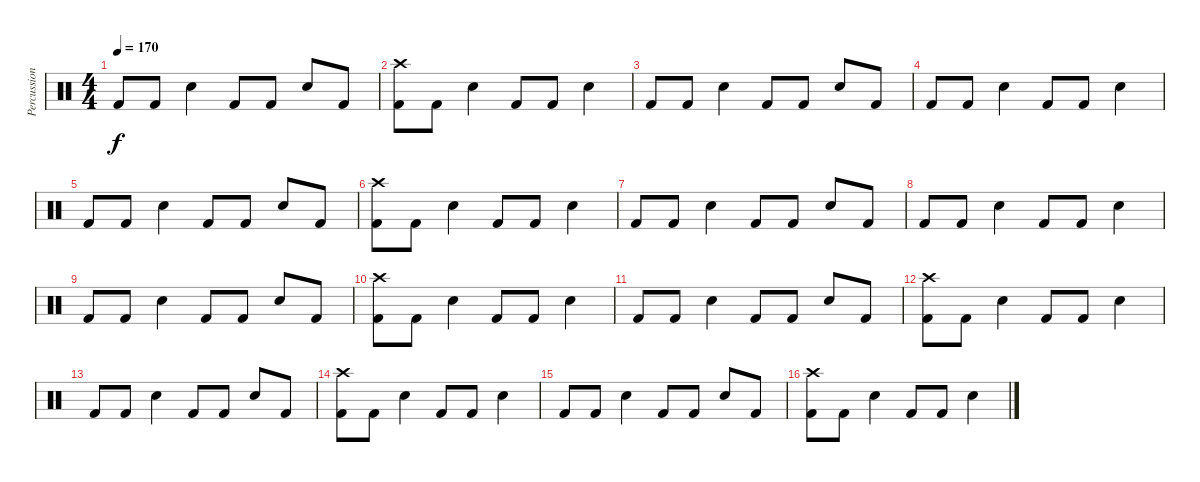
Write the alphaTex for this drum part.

\track ("Percussion" "Percussion") {instrument percussion}
\staff {score}
\articulation defaults
\ts (4 4)
\tempo 170
\clef neutral
\ks c "Kick (hit) 2".8{dy f} "Kick (hit) 2".8 "Electric Snare (hit)".4 "Kick (hit) 2".8 "Kick (hit) 2".8 "Electric Snare (hit)".8 "Kick (hit) 2".8
|
("Crash high (hit)" "Kick (hit) 2").8 "Kick (hit) 2".8 "Electric Snare (hit)".4 "Kick (hit) 2".8 "Kick (hit) 2".8 "Electric Snare (hit)".4 |
"Kick (hit) 2".8 "Kick (hit) 2".8 "Electric Snare (hit)".4 "Kick (hit) 2".8 "Kick (hit) 2".8 "Electric Snare (hit)".8 "Kick (hit) 2".8 |
"Kick (hit) 2".8 "Kick (hit) 2".8 "Electric Snare (hit)".4 "Kick (hit) 2".8 "Kick (hit) 2".8 "Electric Snare (hit)".4 |
"Kick (hit) 2".8 "Kick (hit) 2".8 "Electric Snare (hit)".4 "Kick (hit) 2".8 "Kick (hit) 2".8 "Electric Snare (hit)".8 "Kick (hit) 2".8 |
("Crash high (hit)" "Kick (hit) 2").8 "Kick (hit) 2".8 "Electric Snare (hit)".4 "Kick (hit) 2".8 "Kick (hit) 2".8 "Electric Snare (hit)".4 |
"Kick (hit) 2".8 "Kick (hit) 2".8 "Electric Snare (hit)".4 "Kick (hit) 2".8 "Kick (hit) 2".8 "Electric Snare (hit)".8 "Kick (hit) 2".8 |
"Kick (hit) 2".8 "Kick (hit) 2".8 "Electric Snare (hit)".4 "Kick (hit) 2".8 "Kick (hit) 2".8 "Electric Snare (hit)".4 |
"Kick (hit) 2".8 "Kick (hit) 2".8 "Electric Snare (hit)".4 "Kick (hit) 2".8 "Kick (hit) 2".8 "Electric Snare (hit)".8 "Kick (hit) 2".8 |
("Crash high (hit)" "Kick (hit) 2").8 "Kick (hit) 2".8 "Electric Snare (hit)".4 "Kick (hit) 2".8 "Kick (hit) 2".8 "Electric Snare (hit)".4 |
"Kick (hit) 2".8 "Kick (hit) 2".8 "Electric Snare (hit)".4 "Kick (hit) 2".8 "Kick (hit) 2".8 "Electric Snare (hit)".8 "Kick (hit) 2".8 |
("Crash high (hit)" "Kick (hit) 2").8 "Kick (hit) 2".8 "Electric Snare (hit)".4 "Kick (hit) 2".8 "Kick (hit) 2".8 "Electric Snare (hit)".4 |
"Kick (hit) 2".8 "Kick (hit) 2".8 "Electric Snare (hit)".4 "Kick (hit) 2".8 "Kick (hit) 2".8 "Electric Snare (hit)".8 "Kick (hit) 2".8 |
("Crash high (hit)" "Kick (hit) 2").8 "Kick (hit) 2".8 "Electric Snare (hit)".4 "Kick (hit) 2".8 "Kick (hit) 2".8 "Electric Snare (hit)".4 |
"Kick (hit) 2".8 "Kick (hit) 2".8 "Electric Snare (hit)".4 "Kick (hit) 2".8 "Kick (hit) 2".8 "Electric Snare (hit)".8 "Kick (hit) 2".8 |
("Crash high (hit)" "Kick (hit) 2").8 "Kick (hit) 2".8 "Electric Snare (hit)".4 "Kick (hit) 2".8 "Kick (hit) 2".8 "Electric Snare (hit)".4
